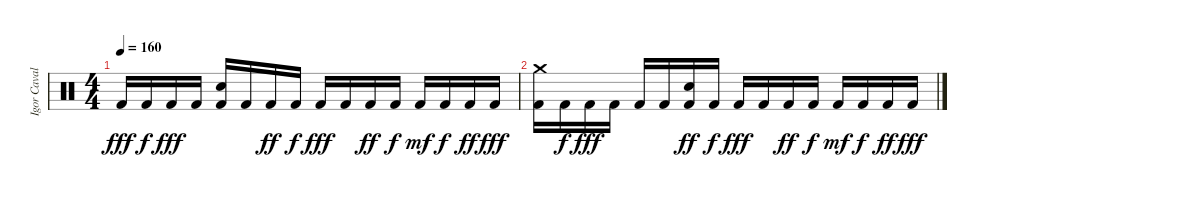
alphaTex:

\track ("Igor Cavalera" "Igor Caval") {instrument percussion}
\staff {score}
\articulation defaults
\ts (4 4)
\tempo 160
\clef neutral
\ks c "Kick (hit) 2".16{dy fff} "Kick (hit) 2".16{dy f} "Kick (hit) 2".16{dy fff} "Kick (hit) 2".16
("Kick (hit) 2" "Electric Snare (hit)").16 "Kick (hit) 2".16 "Kick (hit) 2".16{dy ff} "Kick (hit) 2".16{dy f} "Kick (hit) 2".16{dy fff} "Kick (hit) 2".16 "Kick (hit) 2".16{dy ff} "Kick (hit) 2".16{dy f} "Kick (hit) 2".16{dy mf} "Kick (hit) 2".16{dy f} "Kick (hit) 2".16{dy ff} "Kick (hit) 2".16{dy fff} |
("Kick (hit) 2" "Crash medium (hit)").16{volume 0} "Kick (hit) 2".16{dy f} "Kick (hit) 2".16{dy fff} "Kick (hit) 2".16 "Kick (hit) 2".16 "Kick (hit) 2".16 ("Kick (hit) 2" "Electric Snare (hit)").16{dy ff} "Kick (hit) 2".16{dy f} "Kick (hit) 2".16{dy fff} "Kick (hit) 2".16 "Kick (hit) 2".16{dy ff} "Kick (hit) 2".16{dy f} "Kick (hit) 2".16{dy mf} "Kick (hit) 2".16{dy f} "Kick (hit) 2".16{dy ff} "Kick (hit) 2".16{dy fff}
